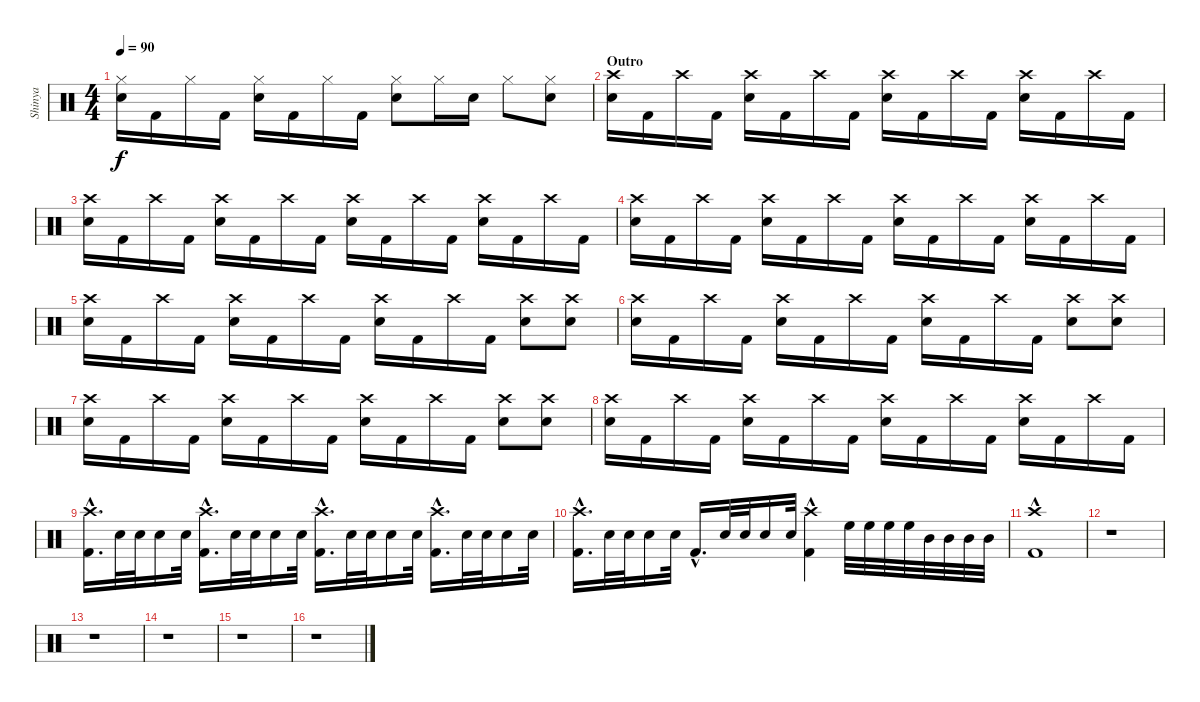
\track ("Shinya" "Shinya") {instrument percussion}
\staff {score}
\articulation defaults
\ts (4 4)
\tempo 90
\clef neutral
\ks c
("Snare (hit) 2" "Hi-Hat (closed)").16{dy f} "Kick (hit) 2".16 "Hi-Hat (closed)".16 "Kick (hit) 2".16 ("Snare (hit) 2" "Hi-Hat (closed)").16 "Kick (hit) 2".16 "Hi-Hat (closed)".16 "Kick (hit) 2".16 ("Snare (hit) 2" "Hi-Hat (closed)").8 "Hi-Hat (closed)".16 "Snare (hit) 2".16 "Hi-Hat (closed)".8 ("Snare (hit) 2" "Hi-Hat (closed)").8 |
\section ("" "Outro")
("Snare (hit) 2" "Crash high (hit)").16 "Kick (hit) 2".16 "Crash high (hit)".16 "Kick (hit) 2".16 ("Snare (hit) 2" "Crash high (hit)").16 "Kick (hit) 2".16 "Crash high (hit)".16 "Kick (hit) 2".16 ("Snare (hit) 2" "Crash high (hit)").16 "Kick (hit) 2".16 "Crash high (hit)".16 "Kick (hit) 2".16 ("Snare (hit) 2" "Crash high (hit)").16 "Kick (hit) 2".16 "Crash high (hit)".16 "Kick (hit) 2".16 |
("Snare (hit) 2" "Crash high (hit)").16 "Kick (hit) 2".16 "Crash high (hit)".16 "Kick (hit) 2".16 ("Snare (hit) 2" "Crash high (hit)").16 "Kick (hit) 2".16 "Crash high (hit)".16 "Kick (hit) 2".16 ("Snare (hit) 2" "Crash high (hit)").16 "Kick (hit) 2".16 "Crash high (hit)".16 "Kick (hit) 2".16 ("Snare (hit) 2" "Crash high (hit)").16 "Kick (hit) 2".16 "Crash high (hit)".16 "Kick (hit) 2".16 |
("Snare (hit) 2" "Crash high (hit)").16 "Kick (hit) 2".16 "Crash high (hit)".16 "Kick (hit) 2".16 ("Snare (hit) 2" "Crash high (hit)").16 "Kick (hit) 2".16 "Crash high (hit)".16 "Kick (hit) 2".16 ("Snare (hit) 2" "Crash high (hit)").16 "Kick (hit) 2".16 "Crash high (hit)".16 "Kick (hit) 2".16 ("Snare (hit) 2" "Crash high (hit)").16 "Kick (hit) 2".16 "Crash high (hit)".16 "Kick (hit) 2".16 |
("Snare (hit) 2" "Crash high (hit)").16 "Kick (hit) 2".16 "Crash high (hit)".16 "Kick (hit) 2".16 ("Snare (hit) 2" "Crash high (hit)").16 "Kick (hit) 2".16 "Crash high (hit)".16 "Kick (hit) 2".16 ("Snare (hit) 2" "Crash high (hit)").16 "Kick (hit) 2".16 "Crash high (hit)".16 "Kick (hit) 2".16 ("Snare (hit) 2" "Crash high (hit)").8 ("Crash high (hit)" "Snare (hit) 2").8 |
("Snare (hit) 2" "Crash high (hit)").16 "Kick (hit) 2".16 "Crash high (hit)".16 "Kick (hit) 2".16 ("Snare (hit) 2" "Crash high (hit)").16 "Kick (hit) 2".16 "Crash high (hit)".16 "Kick (hit) 2".16 ("Snare (hit) 2" "Crash high (hit)").16 "Kick (hit) 2".16 "Crash high (hit)".16 "Kick (hit) 2".16 ("Snare (hit) 2" "Crash high (hit)").8 ("Crash high (hit)" "Snare (hit) 2").8 |
("Snare (hit) 2" "Crash high (hit)").16 "Kick (hit) 2".16 "Crash high (hit)".16 "Kick (hit) 2".16 ("Snare (hit) 2" "Crash high (hit)").16 "Kick (hit) 2".16 "Crash high (hit)".16 "Kick (hit) 2".16 ("Snare (hit) 2" "Crash high (hit)").16 "Kick (hit) 2".16 "Crash high (hit)".16 "Kick (hit) 2".16 ("Snare (hit) 2" "Crash high (hit)").8 ("Crash high (hit)" "Snare (hit) 2").8 |
("Snare (hit) 2" "Crash high (hit)").16 "Kick (hit) 2".16 "Crash high (hit)".16 "Kick (hit) 2".16 ("Snare (hit) 2" "Crash high (hit)").16 "Kick (hit) 2".16 "Crash high (hit)".16 "Kick (hit) 2".16 ("Snare (hit) 2" "Crash high (hit)").16 "Kick (hit) 2".16 "Crash high (hit)".16 "Kick (hit) 2".16 ("Snare (hit) 2" "Crash high (hit)").16 "Kick (hit) 2".16 "Crash high (hit)".16 "Kick (hit) 2".16 |
("Kick (hit) 2"{hac} "Crash high (hit)").16{d} "Snare (hit) 2".32 "Snare (hit) 2".32 "Snare (hit) 2".16 "Snare (hit) 2".32 ("Kick (hit) 2"{hac} "Crash high (hit)").16{d} "Snare (hit) 2".32 "Snare (hit) 2".32 "Snare (hit) 2".16 "Snare (hit) 2".32 ("Kick (hit) 2"{hac} "Crash high (hit)").16{d} "Snare (hit) 2".32 "Snare (hit) 2".32 "Snare (hit) 2".16 "Snare (hit) 2".32 ("Kick (hit) 2"{hac} "Crash high (hit)").16{d} "Snare (hit) 2".32 "Snare (hit) 2".32 "Snare (hit) 2".16 "Snare (hit) 2".32 |
("Kick (hit) 2"{hac} "Crash high (hit)").16{d} "Snare (hit) 2".32 "Snare (hit) 2".32 "Snare (hit) 2".16 "Snare (hit) 2".32 "Kick (hit) 2"{hac}.16{d} "Snare (hit) 2".32 "Snare (hit) 2".32 "Snare (hit) 2".16 "Snare (hit) 2".32 ("Kick (hit) 2"{hac} "Crash high (hit)").4 "High Floor Tom (hit)".32 "High Floor Tom (hit)".32 "High Floor Tom (hit)".32 "High Floor Tom (hit)".32 "Mid Tom (hit)".32 "Mid Tom (hit)".32 "Mid Tom (hit)".32 "Mid Tom (hit)".32 |
("Kick (hit) 2"{hac} "Crash high (hit)").1 |
r.1 |
r.1 |
r.1 |
r.1 |
r.1
